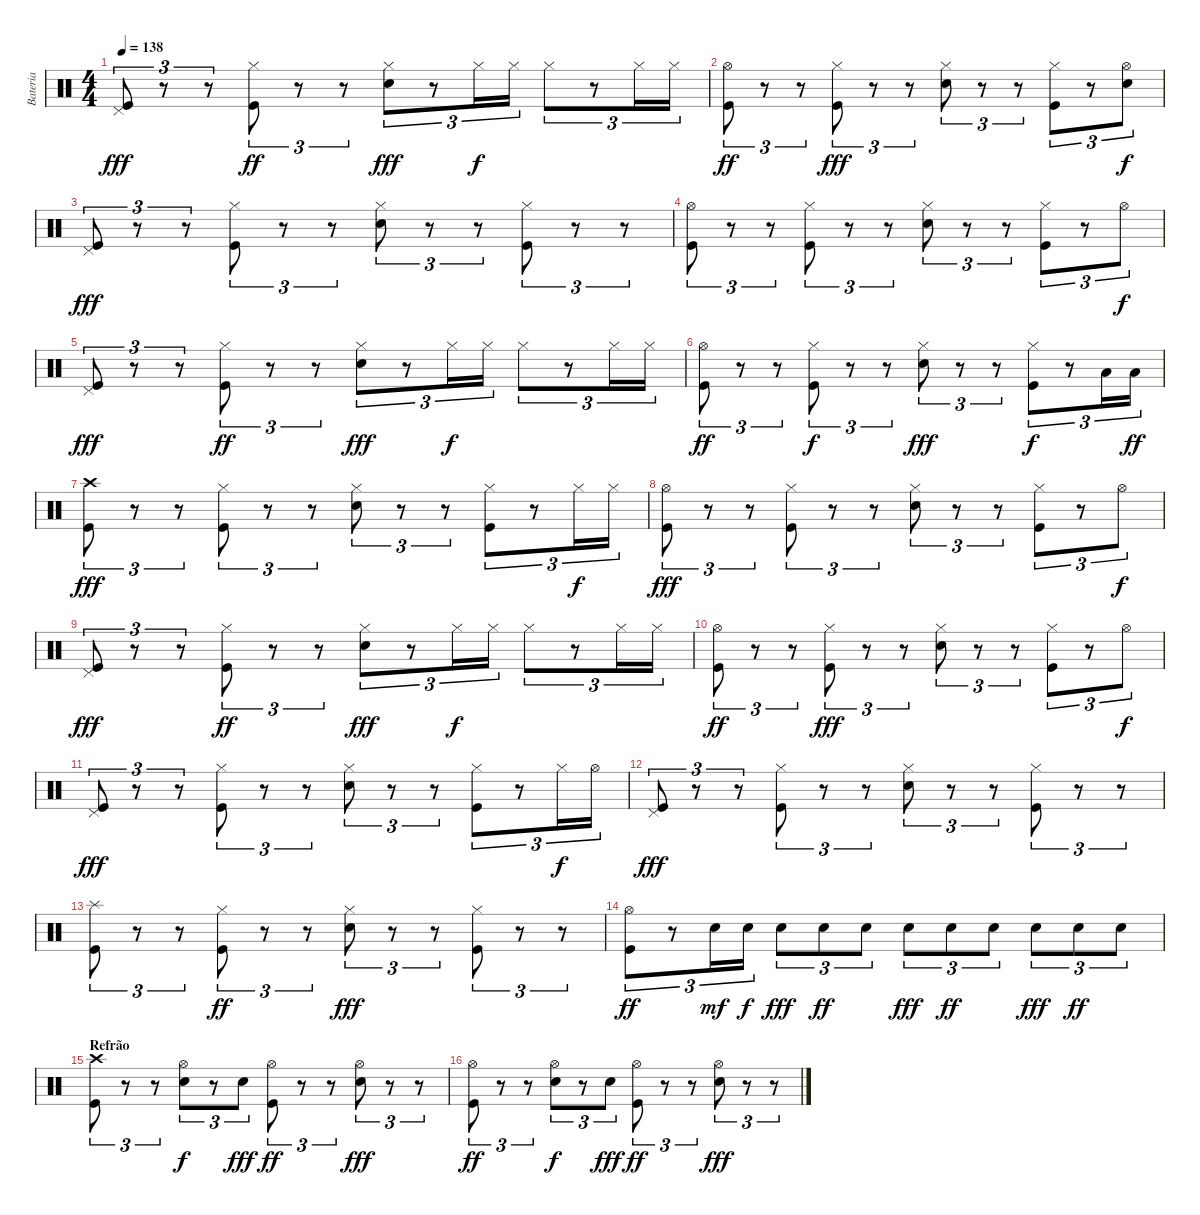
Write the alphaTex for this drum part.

\track ("Bateria" "Bateria") {instrument percussion}
\staff {score}
\articulation defaults
\ts (4 4)
\tempo 138
\clef neutral
\ks c
("Kick (hit)" "Pedal Hi-Hat (hit)").8{tu (3 2) dy fff} r.8{tu (3 2)} r.8{tu (3 2)} ("Kick (hit)" "Hi-Hat (closed)").8{tu (3 2) dy ff} r.8{tu (3 2)} r.8{tu (3 2)} ("Electric Snare (hit)" "Hi-Hat (closed)").8{tu (3 2) dy fff} r.8{tu (3 2)} "Hi-Hat (closed)".16{tu (3 2) dy f} "Hi-Hat (closed)".16{tu (3 2)} "Hi-Hat (closed)".8{tu (3 2)} r.8{tu (3 2)} "Hi-Hat (closed)".16{tu (3 2)} "Hi-Hat (closed)".16{tu (3 2)} |
("Kick (hit)" "Hi-Hat (open)").8{tu (3 2) dy ff} r.8{tu (3 2)} r.8{tu (3 2)} ("Kick (hit)" "Hi-Hat (closed)").8{tu (3 2) dy fff} r.8{tu (3 2)} r.8{tu (3 2)} ("Electric Snare (hit)" "Hi-Hat (closed)").8{tu (3 2)} r.8{tu (3 2)} r.8{tu (3 2)} ("Kick (hit)" "Hi-Hat (closed)").8{tu (3 2)} r.8{tu (3 2)} ("Electric Snare (hit)" "Hi-Hat (open)").8{tu (3 2) dy f} |
("Kick (hit)" "Pedal Hi-Hat (hit)").8{tu (3 2) dy fff} r.8{tu (3 2)} r.8{tu (3 2)} ("Kick (hit)" "Hi-Hat (closed)").8{tu (3 2)} r.8{tu (3 2)} r.8{tu (3 2)} ("Electric Snare (hit)" "Hi-Hat (closed)").8{tu (3 2)} r.8{tu (3 2)} r.8{tu (3 2)} ("Kick (hit)" "Hi-Hat (closed)").8{tu (3 2)} r.8{tu (3 2)} r.8{tu (3 2)} |
("Kick (hit)" "Hi-Hat (open)").8{tu (3 2)} r.8{tu (3 2)} r.8{tu (3 2)} ("Kick (hit)" "Hi-Hat (closed)").8{tu (3 2)} r.8{tu (3 2)} r.8{tu (3 2)} ("Electric Snare (hit)" "Hi-Hat (closed)").8{tu (3 2)} r.8{tu (3 2)} r.8{tu (3 2)} ("Kick (hit)" "Hi-Hat (closed)").8{tu (3 2)} r.8{tu (3 2)} "Hi-Hat (open)".8{tu (3 2) dy f} |
("Kick (hit)" "Pedal Hi-Hat (hit)").8{tu (3 2) dy fff} r.8{tu (3 2)} r.8{tu (3 2)} ("Kick (hit)" "Hi-Hat (closed)").8{tu (3 2) dy ff} r.8{tu (3 2)} r.8{tu (3 2)} ("Electric Snare (hit)" "Hi-Hat (closed)").8{tu (3 2) dy fff} r.8{tu (3 2)} "Hi-Hat (closed)".16{tu (3 2) dy f} "Hi-Hat (closed)".16{tu (3 2)} "Hi-Hat (closed)".8{tu (3 2)} r.8{tu (3 2)} "Hi-Hat (closed)".16{tu (3 2)} "Hi-Hat (closed)".16{tu (3 2)} |
("Kick (hit)" "Hi-Hat (open)").8{tu (3 2) dy ff} r.8{tu (3 2)} r.8{tu (3 2)} ("Kick (hit)" "Hi-Hat (closed)").8{tu (3 2) dy f} r.8{tu (3 2)} r.8{tu (3 2)} ("Electric Snare (hit)" "Hi-Hat (closed)").8{tu (3 2) dy fff} r.8{tu (3 2)} r.8{tu (3 2)} ("Kick (hit)" "Hi-Hat (closed)").8{tu (3 2) dy f} r.8{tu (3 2)} "Low Tom (hit)".16{tu (3 2)} "Low Tom (hit)".16{tu (3 2) dy ff} |
("Kick (hit)" "Crash high (hit)").8{tu (3 2) dy fff} r.8{tu (3 2)} r.8{tu (3 2)} ("Kick (hit)" "Hi-Hat (closed)").8{tu (3 2)} r.8{tu (3 2)} r.8{tu (3 2)} ("Electric Snare (hit)" "Hi-Hat (closed)").8{tu (3 2)} r.8{tu (3 2)} r.8{tu (3 2)} ("Kick (hit)" "Hi-Hat (closed)").8{tu (3 2)} r.8{tu (3 2)} "Hi-Hat (closed)".16{tu (3 2) dy f} "Hi-Hat (closed)".16{tu (3 2)} |
("Kick (hit)" "Hi-Hat (open)").8{tu (3 2) dy fff} r.8{tu (3 2)} r.8{tu (3 2)} ("Kick (hit)" "Hi-Hat (closed)").8{tu (3 2)} r.8{tu (3 2)} r.8{tu (3 2)} ("Electric Snare (hit)" "Hi-Hat (closed)").8{tu (3 2)} r.8{tu (3 2)} r.8{tu (3 2)} ("Kick (hit)" "Hi-Hat (closed)").8{tu (3 2)} r.8{tu (3 2)} "Hi-Hat (open)".8{tu (3 2) dy f} |
("Kick (hit)" "Pedal Hi-Hat (hit)").8{tu (3 2) dy fff} r.8{tu (3 2)} r.8{tu (3 2)} ("Kick (hit)" "Hi-Hat (closed)").8{tu (3 2) dy ff} r.8{tu (3 2)} r.8{tu (3 2)} ("Electric Snare (hit)" "Hi-Hat (closed)").8{tu (3 2) dy fff} r.8{tu (3 2)} "Hi-Hat (closed)".16{tu (3 2) dy f} "Hi-Hat (closed)".16{tu (3 2)} "Hi-Hat (closed)".8{tu (3 2)} r.8{tu (3 2)} "Hi-Hat (closed)".16{tu (3 2)} "Hi-Hat (closed)".16{tu (3 2)} |
("Kick (hit)" "Hi-Hat (open)").8{tu (3 2) dy ff} r.8{tu (3 2)} r.8{tu (3 2)} ("Kick (hit)" "Hi-Hat (closed)").8{tu (3 2) dy fff} r.8{tu (3 2)} r.8{tu (3 2)} ("Electric Snare (hit)" "Hi-Hat (closed)").8{tu (3 2)} r.8{tu (3 2)} r.8{tu (3 2)} ("Kick (hit)" "Hi-Hat (closed)").8{tu (3 2)} r.8{tu (3 2)} "Hi-Hat (open)".8{tu (3 2) dy f} |
("Kick (hit)" "Pedal Hi-Hat (hit)").8{tu (3 2) dy fff} r.8{tu (3 2)} r.8{tu (3 2)} ("Kick (hit)" "Hi-Hat (closed)").8{tu (3 2)} r.8{tu (3 2)} r.8{tu (3 2)} ("Electric Snare (hit)" "Hi-Hat (closed)").8{tu (3 2)} r.8{tu (3 2)} r.8{tu (3 2)} ("Kick (hit)" "Hi-Hat (closed)").8{tu (3 2)} r.8{tu (3 2)} "Hi-Hat (closed)".16{tu (3 2) dy f} "Hi-Hat (open)".16{tu (3 2)} |
("Kick (hit)" "Pedal Hi-Hat (hit)").8{tu (3 2) dy fff} r.8{tu (3 2)} r.8{tu (3 2)} ("Kick (hit)" "Hi-Hat (closed)").8{tu (3 2)} r.8{tu (3 2)} r.8{tu (3 2)} ("Electric Snare (hit)" "Hi-Hat (closed)").8{tu (3 2)} r.8{tu (3 2)} r.8{tu (3 2)} ("Kick (hit)" "Hi-Hat (closed)").8{tu (3 2)} r.8{tu (3 2)} r.8{tu (3 2)} |
("Kick (hit)" "Splash (hit)").8{tu (3 2)} r.8{tu (3 2)} r.8{tu (3 2)} ("Kick (hit)" "Hi-Hat (closed)").8{tu (3 2) dy ff} r.8{tu (3 2)} r.8{tu (3 2)} ("Electric Snare (hit)" "Hi-Hat (closed)").8{tu (3 2) dy fff} r.8{tu (3 2)} r.8{tu (3 2)} ("Kick (hit)" "Hi-Hat (closed)").8{tu (3 2)} r.8{tu (3 2)} r.8{tu (3 2)} |
("Kick (hit)" "Hi-Hat (open)").8{tu (3 2) dy ff} r.8{tu (3 2)} "Electric Snare (hit)".16{tu (3 2) dy mf} "Electric Snare (hit)".16{tu (3 2) dy f} "Electric Snare (hit)".8{tu (3 2) dy fff} "Electric Snare (hit)".8{tu (3 2) dy ff} "Electric Snare (hit)".8{tu (3 2)} "Electric Snare (hit)".8{tu (3 2) dy fff} "Electric Snare (hit)".8{tu (3 2) dy ff} "Electric Snare (hit)".8{tu (3 2)} "Electric Snare (hit)".8{tu (3 2) dy fff} "Electric Snare (hit)".8{tu (3 2) dy ff} "Electric Snare (hit)".8{tu (3 2)} |
\section ("" "Refrão")
("Kick (hit)" "Crash high (hit)").8{tu (3 2)} r.8{tu (3 2)} r.8{tu (3 2)} ("Electric Snare (hit)" "Hi-Hat (open)").8{tu (3 2) dy f} r.8{tu (3 2)} "Electric Snare (hit)".8{tu (3 2) dy fff} ("Kick (hit)" "Hi-Hat (open)").8{tu (3 2) dy ff} r.8{tu (3 2)} r.8{tu (3 2)} ("Electric Snare (hit)" "Hi-Hat (open)").8{tu (3 2) dy fff} r.8{tu (3 2)} r.8{tu (3 2)} |
("Kick (hit)" "Hi-Hat (open)").8{tu (3 2) dy ff} r.8{tu (3 2)} r.8{tu (3 2)} ("Electric Snare (hit)" "Hi-Hat (open)").8{tu (3 2) dy f} r.8{tu (3 2)} "Electric Snare (hit)".8{tu (3 2) dy fff} ("Kick (hit)" "Hi-Hat (open)").8{tu (3 2) dy ff} r.8{tu (3 2)} r.8{tu (3 2)} ("Electric Snare (hit)" "Hi-Hat (open)").8{tu (3 2) dy fff} r.8{tu (3 2)} r.8{tu (3 2)}
